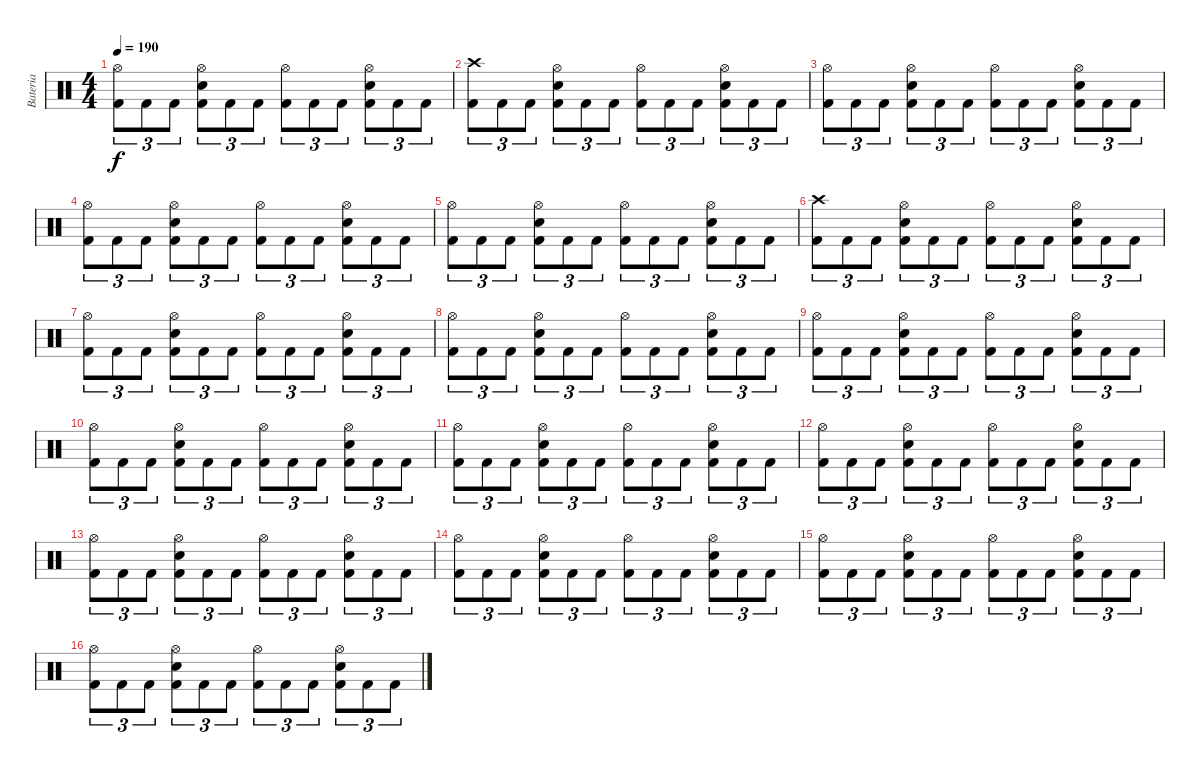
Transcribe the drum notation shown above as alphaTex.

\track ("Bateria" "Bateria") {instrument percussion}
\staff {score}
\articulation defaults
\ts (4 4)
\tempo 190
\clef neutral
\ks c
("Hi-Hat (open)" "Kick (hit) 2").8{tu (3 2) dy f} "Kick (hit) 2".8{tu (3 2)} "Kick (hit) 2".8{tu (3 2)} ("Hi-Hat (open)" "Electric Snare (hit)" "Kick (hit) 2").8{tu (3 2)} "Kick (hit) 2".8{tu (3 2)} "Kick (hit) 2".8{tu (3 2)} ("Hi-Hat (open)" "Kick (hit) 2").8{tu (3 2)} "Kick (hit) 2".8{tu (3 2)} "Kick (hit) 2".8{tu (3 2)} ("Hi-Hat (open)" "Electric Snare (hit)" "Kick (hit) 2").8{tu (3 2)} "Kick (hit) 2".8{tu (3 2)} "Kick (hit) 2".8{tu (3 2)} |
("Crash high (hit)" "Kick (hit) 2").8{tu (3 2)} "Kick (hit) 2".8{tu (3 2)} "Kick (hit) 2".8{tu (3 2)} ("Hi-Hat (open)" "Electric Snare (hit)" "Kick (hit) 2").8{tu (3 2)} "Kick (hit) 2".8{tu (3 2)} "Kick (hit) 2".8{tu (3 2)} ("Hi-Hat (open)" "Kick (hit) 2").8{tu (3 2)} "Kick (hit) 2".8{tu (3 2)} "Kick (hit) 2".8{tu (3 2)} ("Hi-Hat (open)" "Electric Snare (hit)" "Kick (hit) 2").8{tu (3 2)} "Kick (hit) 2".8{tu (3 2)} "Kick (hit) 2".8{tu (3 2)} |
("Hi-Hat (open)" "Kick (hit) 2").8{tu (3 2)} "Kick (hit) 2".8{tu (3 2)} "Kick (hit) 2".8{tu (3 2)} ("Hi-Hat (open)" "Electric Snare (hit)" "Kick (hit) 2").8{tu (3 2)} "Kick (hit) 2".8{tu (3 2)} "Kick (hit) 2".8{tu (3 2)} ("Hi-Hat (open)" "Kick (hit) 2").8{tu (3 2)} "Kick (hit) 2".8{tu (3 2)} "Kick (hit) 2".8{tu (3 2)} ("Hi-Hat (open)" "Electric Snare (hit)" "Kick (hit) 2").8{tu (3 2)} "Kick (hit) 2".8{tu (3 2)} "Kick (hit) 2".8{tu (3 2)} |
("Hi-Hat (open)" "Kick (hit) 2").8{tu (3 2)} "Kick (hit) 2".8{tu (3 2)} "Kick (hit) 2".8{tu (3 2)} ("Hi-Hat (open)" "Electric Snare (hit)" "Kick (hit) 2").8{tu (3 2)} "Kick (hit) 2".8{tu (3 2)} "Kick (hit) 2".8{tu (3 2)} ("Hi-Hat (open)" "Kick (hit) 2").8{tu (3 2)} "Kick (hit) 2".8{tu (3 2)} "Kick (hit) 2".8{tu (3 2)} ("Hi-Hat (open)" "Electric Snare (hit)" "Kick (hit) 2").8{tu (3 2)} "Kick (hit) 2".8{tu (3 2)} "Kick (hit) 2".8{tu (3 2)} |
("Hi-Hat (open)" "Kick (hit) 2").8{tu (3 2)} "Kick (hit) 2".8{tu (3 2)} "Kick (hit) 2".8{tu (3 2)} ("Hi-Hat (open)" "Electric Snare (hit)" "Kick (hit) 2").8{tu (3 2)} "Kick (hit) 2".8{tu (3 2)} "Kick (hit) 2".8{tu (3 2)} ("Hi-Hat (open)" "Kick (hit) 2").8{tu (3 2)} "Kick (hit) 2".8{tu (3 2)} "Kick (hit) 2".8{tu (3 2)} ("Hi-Hat (open)" "Electric Snare (hit)" "Kick (hit) 2").8{tu (3 2)} "Kick (hit) 2".8{tu (3 2)} "Kick (hit) 2".8{tu (3 2)} |
("Crash high (hit)" "Kick (hit) 2").8{tu (3 2)} "Kick (hit) 2".8{tu (3 2)} "Kick (hit) 2".8{tu (3 2)} ("Hi-Hat (open)" "Electric Snare (hit)" "Kick (hit) 2").8{tu (3 2)} "Kick (hit) 2".8{tu (3 2)} "Kick (hit) 2".8{tu (3 2)} ("Hi-Hat (open)" "Kick (hit) 2").8{tu (3 2)} "Kick (hit) 2".8{tu (3 2)} "Kick (hit) 2".8{tu (3 2)} ("Hi-Hat (open)" "Electric Snare (hit)" "Kick (hit) 2").8{tu (3 2)} "Kick (hit) 2".8{tu (3 2)} "Kick (hit) 2".8{tu (3 2)} |
("Hi-Hat (open)" "Kick (hit) 2").8{tu (3 2)} "Kick (hit) 2".8{tu (3 2)} "Kick (hit) 2".8{tu (3 2)} ("Hi-Hat (open)" "Electric Snare (hit)" "Kick (hit) 2").8{tu (3 2)} "Kick (hit) 2".8{tu (3 2)} "Kick (hit) 2".8{tu (3 2)} ("Hi-Hat (open)" "Kick (hit) 2").8{tu (3 2)} "Kick (hit) 2".8{tu (3 2)} "Kick (hit) 2".8{tu (3 2)} ("Hi-Hat (open)" "Electric Snare (hit)" "Kick (hit) 2").8{tu (3 2)} "Kick (hit) 2".8{tu (3 2)} "Kick (hit) 2".8{tu (3 2)} |
("Hi-Hat (open)" "Kick (hit) 2").8{tu (3 2)} "Kick (hit) 2".8{tu (3 2)} "Kick (hit) 2".8{tu (3 2)} ("Hi-Hat (open)" "Electric Snare (hit)" "Kick (hit) 2").8{tu (3 2)} "Kick (hit) 2".8{tu (3 2)} "Kick (hit) 2".8{tu (3 2)} ("Hi-Hat (open)" "Kick (hit) 2").8{tu (3 2)} "Kick (hit) 2".8{tu (3 2)} "Kick (hit) 2".8{tu (3 2)} ("Hi-Hat (open)" "Electric Snare (hit)" "Kick (hit) 2").8{tu (3 2)} "Kick (hit) 2".8{tu (3 2)} "Kick (hit) 2".8{tu (3 2)} |
("Hi-Hat (open)" "Kick (hit) 2").8{tu (3 2)} "Kick (hit) 2".8{tu (3 2)} "Kick (hit) 2".8{tu (3 2)} ("Hi-Hat (open)" "Electric Snare (hit)" "Kick (hit) 2").8{tu (3 2)} "Kick (hit) 2".8{tu (3 2)} "Kick (hit) 2".8{tu (3 2)} ("Hi-Hat (open)" "Kick (hit) 2").8{tu (3 2)} "Kick (hit) 2".8{tu (3 2)} "Kick (hit) 2".8{tu (3 2)} ("Hi-Hat (open)" "Electric Snare (hit)" "Kick (hit) 2").8{tu (3 2)} "Kick (hit) 2".8{tu (3 2)} "Kick (hit) 2".8{tu (3 2)} |
("Hi-Hat (open)" "Kick (hit) 2").8{tu (3 2)} "Kick (hit) 2".8{tu (3 2)} "Kick (hit) 2".8{tu (3 2)} ("Hi-Hat (open)" "Electric Snare (hit)" "Kick (hit) 2").8{tu (3 2)} "Kick (hit) 2".8{tu (3 2)} "Kick (hit) 2".8{tu (3 2)} ("Hi-Hat (open)" "Kick (hit) 2").8{tu (3 2)} "Kick (hit) 2".8{tu (3 2)} "Kick (hit) 2".8{tu (3 2)} ("Hi-Hat (open)" "Electric Snare (hit)" "Kick (hit) 2").8{tu (3 2)} "Kick (hit) 2".8{tu (3 2)} "Kick (hit) 2".8{tu (3 2)} |
("Hi-Hat (open)" "Kick (hit) 2").8{tu (3 2)} "Kick (hit) 2".8{tu (3 2)} "Kick (hit) 2".8{tu (3 2)} ("Hi-Hat (open)" "Electric Snare (hit)" "Kick (hit) 2").8{tu (3 2)} "Kick (hit) 2".8{tu (3 2)} "Kick (hit) 2".8{tu (3 2)} ("Hi-Hat (open)" "Kick (hit) 2").8{tu (3 2)} "Kick (hit) 2".8{tu (3 2)} "Kick (hit) 2".8{tu (3 2)} ("Hi-Hat (open)" "Electric Snare (hit)" "Kick (hit) 2").8{tu (3 2)} "Kick (hit) 2".8{tu (3 2)} "Kick (hit) 2".8{tu (3 2)} |
("Hi-Hat (open)" "Kick (hit) 2").8{tu (3 2)} "Kick (hit) 2".8{tu (3 2)} "Kick (hit) 2".8{tu (3 2)} ("Hi-Hat (open)" "Electric Snare (hit)" "Kick (hit) 2").8{tu (3 2)} "Kick (hit) 2".8{tu (3 2)} "Kick (hit) 2".8{tu (3 2)} ("Hi-Hat (open)" "Kick (hit) 2").8{tu (3 2)} "Kick (hit) 2".8{tu (3 2)} "Kick (hit) 2".8{tu (3 2)} ("Hi-Hat (open)" "Electric Snare (hit)" "Kick (hit) 2").8{tu (3 2)} "Kick (hit) 2".8{tu (3 2)} "Kick (hit) 2".8{tu (3 2)} |
("Hi-Hat (open)" "Kick (hit) 2").8{tu (3 2)} "Kick (hit) 2".8{tu (3 2)} "Kick (hit) 2".8{tu (3 2)} ("Hi-Hat (open)" "Electric Snare (hit)" "Kick (hit) 2").8{tu (3 2)} "Kick (hit) 2".8{tu (3 2)} "Kick (hit) 2".8{tu (3 2)} ("Hi-Hat (open)" "Kick (hit) 2").8{tu (3 2)} "Kick (hit) 2".8{tu (3 2)} "Kick (hit) 2".8{tu (3 2)} ("Hi-Hat (open)" "Electric Snare (hit)" "Kick (hit) 2").8{tu (3 2)} "Kick (hit) 2".8{tu (3 2)} "Kick (hit) 2".8{tu (3 2)} |
("Hi-Hat (open)" "Kick (hit) 2").8{tu (3 2)} "Kick (hit) 2".8{tu (3 2)} "Kick (hit) 2".8{tu (3 2)} ("Hi-Hat (open)" "Electric Snare (hit)" "Kick (hit) 2").8{tu (3 2)} "Kick (hit) 2".8{tu (3 2)} "Kick (hit) 2".8{tu (3 2)} ("Hi-Hat (open)" "Kick (hit) 2").8{tu (3 2)} "Kick (hit) 2".8{tu (3 2)} "Kick (hit) 2".8{tu (3 2)} ("Hi-Hat (open)" "Electric Snare (hit)" "Kick (hit) 2").8{tu (3 2)} "Kick (hit) 2".8{tu (3 2)} "Kick (hit) 2".8{tu (3 2)} |
("Hi-Hat (open)" "Kick (hit) 2").8{tu (3 2)} "Kick (hit) 2".8{tu (3 2)} "Kick (hit) 2".8{tu (3 2)} ("Hi-Hat (open)" "Electric Snare (hit)" "Kick (hit) 2").8{tu (3 2)} "Kick (hit) 2".8{tu (3 2)} "Kick (hit) 2".8{tu (3 2)} ("Hi-Hat (open)" "Kick (hit) 2").8{tu (3 2)} "Kick (hit) 2".8{tu (3 2)} "Kick (hit) 2".8{tu (3 2)} ("Hi-Hat (open)" "Electric Snare (hit)" "Kick (hit) 2").8{tu (3 2)} "Kick (hit) 2".8{tu (3 2)} "Kick (hit) 2".8{tu (3 2)} |
("Hi-Hat (open)" "Kick (hit) 2").8{tu (3 2)} "Kick (hit) 2".8{tu (3 2)} "Kick (hit) 2".8{tu (3 2)} ("Hi-Hat (open)" "Electric Snare (hit)" "Kick (hit) 2").8{tu (3 2)} "Kick (hit) 2".8{tu (3 2)} "Kick (hit) 2".8{tu (3 2)} ("Hi-Hat (open)" "Kick (hit) 2").8{tu (3 2)} "Kick (hit) 2".8{tu (3 2)} "Kick (hit) 2".8{tu (3 2)} ("Hi-Hat (open)" "Electric Snare (hit)" "Kick (hit) 2").8{tu (3 2)} "Kick (hit) 2".8{tu (3 2)} "Kick (hit) 2".8{tu (3 2)}
